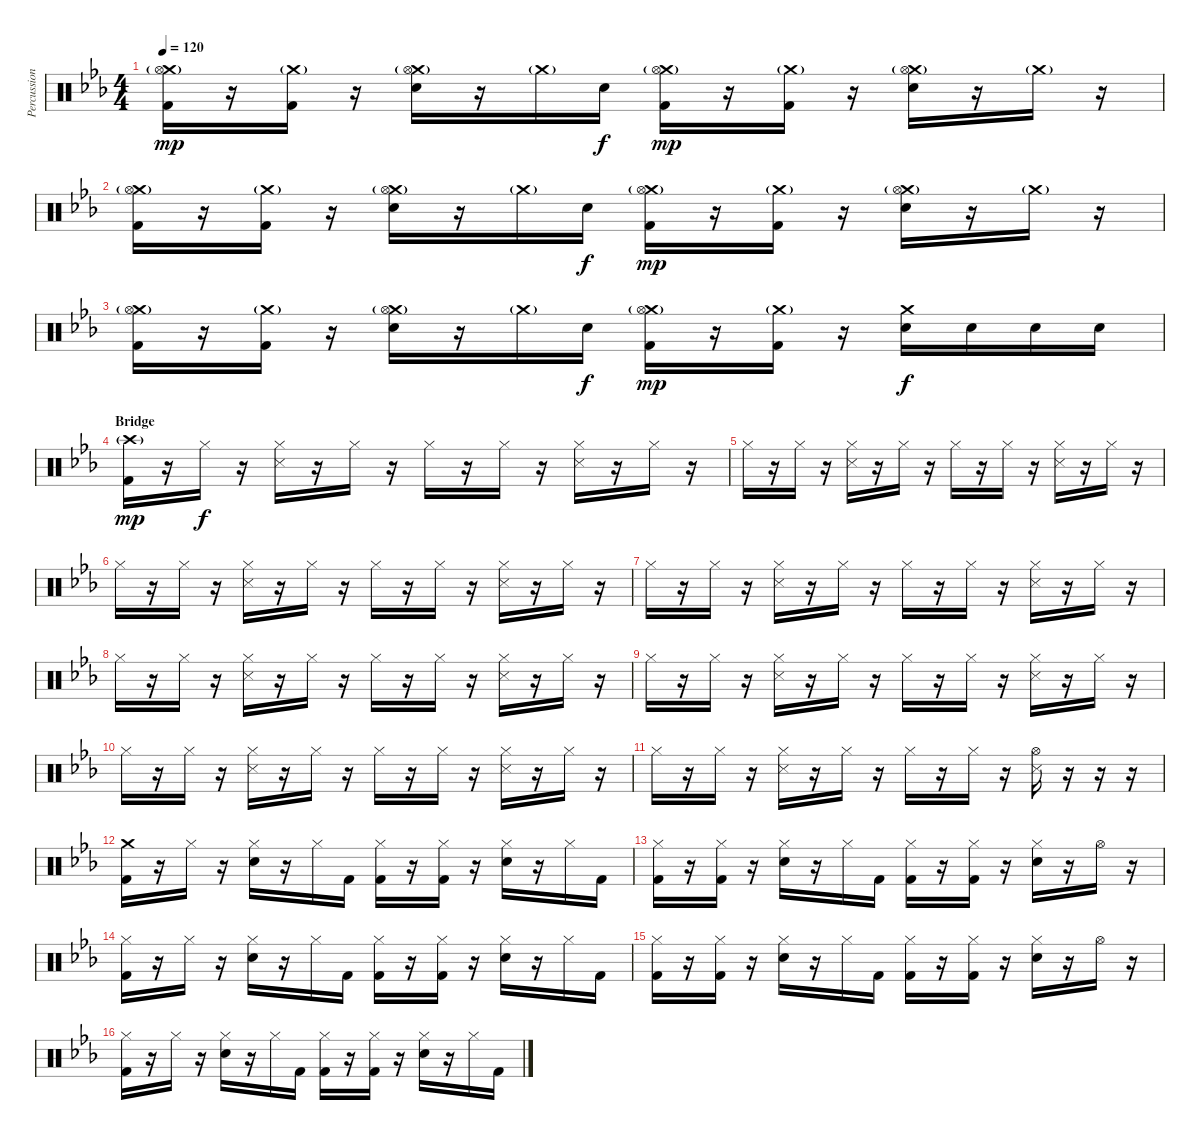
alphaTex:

\track ("Percussion" "Percussion") {instrument percussion}
\staff {score}
\articulation defaults
\ts (4 4)
\tempo 120
\clef neutral
\ks eb
("Crash medium (hit)"{g} "Hi-Hat (open)" "Kick (hit) 2").16{dy mp} r.16 ("Crash medium (hit)"{g} "Kick (hit) 2").16 r.16 ("Crash medium (hit)"{g} "Hi-Hat (open)" "Electric Snare (hit)").16 r.16 "Crash medium (hit)"{g}.16 "Electric Snare (hit)".16{dy f} ("Crash medium (hit)"{g} "Hi-Hat (open)" "Kick (hit) 2").16{dy mp} r.16 ("Crash medium (hit)"{g} "Kick (hit) 2").16 r.16 ("Crash medium (hit)"{g} "Hi-Hat (open)" "Electric Snare (hit)").16 r.16 "Crash medium (hit)"{g}.16 r.16 |
("Crash medium (hit)"{g} "Hi-Hat (open)" "Kick (hit) 2").16 r.16 ("Crash medium (hit)"{g} "Kick (hit) 2").16 r.16 ("Crash medium (hit)"{g} "Hi-Hat (open)" "Electric Snare (hit)").16 r.16 "Crash medium (hit)"{g}.16 "Electric Snare (hit)".16{dy f} ("Crash medium (hit)"{g} "Hi-Hat (open)" "Kick (hit) 2").16{dy mp} r.16 ("Crash medium (hit)"{g} "Kick (hit) 2").16 r.16 ("Crash medium (hit)"{g} "Hi-Hat (open)" "Electric Snare (hit)").16 r.16 "Crash medium (hit)"{g}.16 r.16 |
("Crash medium (hit)"{g} "Hi-Hat (open)" "Kick (hit) 2").16 r.16 ("Crash medium (hit)"{g} "Kick (hit) 2").16 r.16 ("Crash medium (hit)"{g} "Hi-Hat (open)" "Electric Snare (hit)").16 r.16 "Crash medium (hit)"{g}.16 "Electric Snare (hit)".16{dy f} ("Crash medium (hit)"{g} "Hi-Hat (open)" "Kick (hit) 2").16{dy mp} r.16 ("Crash medium (hit)"{g} "Kick (hit) 2").16 r.16 ("Crash medium (hit)" "Electric Snare (hit)").16{dy f} "Electric Snare (hit)".16 "Electric Snare (hit)".16 "Electric Snare (hit)".16 |
\section ("" "Bridge")
("Crash high (hit)"{g} "Kick (hit) 2").16{dy mp} r.16 "Hi-Hat (closed)".16{dy f} r.16 ("Hi-Hat (closed)" "Snare (side stick) 3").16 r.16 "Hi-Hat (closed)".16 r.16 "Hi-Hat (closed)".16 r.16 "Hi-Hat (closed)".16 r.16 ("Hi-Hat (closed)" "Snare (side stick) 3").16 r.16 "Hi-Hat (closed)".16 r.16 |
"Hi-Hat (closed)".16 r.16 "Hi-Hat (closed)".16 r.16 ("Hi-Hat (closed)" "Snare (side stick) 3").16 r.16 "Hi-Hat (closed)".16 r.16 "Hi-Hat (closed)".16 r.16 "Hi-Hat (closed)".16 r.16 ("Hi-Hat (closed)" "Snare (side stick) 3").16 r.16 "Hi-Hat (closed)".16 r.16 |
"Hi-Hat (closed)".16 r.16 "Hi-Hat (closed)".16 r.16 ("Hi-Hat (closed)" "Snare (side stick) 3").16 r.16 "Hi-Hat (closed)".16 r.16 "Hi-Hat (closed)".16 r.16 "Hi-Hat (closed)".16 r.16 ("Hi-Hat (closed)" "Snare (side stick) 3").16 r.16 "Hi-Hat (closed)".16 r.16 |
"Hi-Hat (closed)".16 r.16 "Hi-Hat (closed)".16 r.16 ("Hi-Hat (closed)" "Snare (side stick) 3").16 r.16 "Hi-Hat (closed)".16 r.16 "Hi-Hat (closed)".16 r.16 "Hi-Hat (closed)".16 r.16 ("Hi-Hat (closed)" "Snare (side stick) 3").16 r.16 "Hi-Hat (closed)".16 r.16 |
"Hi-Hat (closed)".16 r.16 "Hi-Hat (closed)".16 r.16 ("Hi-Hat (closed)" "Snare (side stick) 3").16 r.16 "Hi-Hat (closed)".16 r.16 "Hi-Hat (closed)".16 r.16 "Hi-Hat (closed)".16 r.16 ("Hi-Hat (closed)" "Snare (side stick) 3").16 r.16 "Hi-Hat (closed)".16 r.16 |
"Hi-Hat (closed)".16 r.16 "Hi-Hat (closed)".16 r.16 ("Hi-Hat (closed)" "Snare (side stick) 3").16 r.16 "Hi-Hat (closed)".16 r.16 "Hi-Hat (closed)".16 r.16 "Hi-Hat (closed)".16 r.16 ("Hi-Hat (closed)" "Snare (side stick) 3").16 r.16 "Hi-Hat (closed)".16 r.16 |
"Hi-Hat (closed)".16 r.16 "Hi-Hat (closed)".16 r.16 ("Hi-Hat (closed)" "Snare (side stick) 3").16 r.16 "Hi-Hat (closed)".16 r.16 "Hi-Hat (closed)".16 r.16 "Hi-Hat (closed)".16 r.16 ("Hi-Hat (closed)" "Snare (side stick) 3").16 r.16 "Hi-Hat (closed)".16 r.16 |
"Hi-Hat (closed)".16 r.16 "Hi-Hat (closed)".16 r.16 ("Hi-Hat (closed)" "Snare (side stick) 3").16 r.16 "Hi-Hat (closed)".16 r.16 "Hi-Hat (closed)".16 r.16 "Hi-Hat (closed)".16 r.16 ("Hi-Hat (open)" "Snare (side stick) 3").16 r.16 r.16 r.16 |
("Crash medium (hit)" "Kick (hit) 2").16 r.16 "Hi-Hat (closed)".16 r.16 ("Hi-Hat (closed)" "Electric Snare (hit)").16 r.16 "Hi-Hat (closed)".16 "Kick (hit) 2".16 ("Hi-Hat (closed)" "Kick (hit) 2").16 r.16 ("Hi-Hat (closed)" "Kick (hit) 2").16 r.16 ("Hi-Hat (closed)" "Electric Snare (hit)").16 r.16 "Hi-Hat (closed)".16 "Kick (hit) 2".16 |
("Hi-Hat (closed)" "Kick (hit) 2").16 r.16 ("Hi-Hat (closed)" "Kick (hit) 2").16 r.16 ("Hi-Hat (closed)" "Electric Snare (hit)").16 r.16 "Hi-Hat (closed)".16 "Kick (hit) 2".16 ("Hi-Hat (closed)" "Kick (hit) 2").16 r.16 ("Hi-Hat (closed)" "Kick (hit) 2").16 r.16 ("Hi-Hat (closed)" "Electric Snare (hit)").16 r.16 "Hi-Hat (open)".16 r.16 |
("Hi-Hat (closed)" "Kick (hit) 2").16 r.16 "Hi-Hat (closed)".16 r.16 ("Hi-Hat (closed)" "Electric Snare (hit)").16 r.16 "Hi-Hat (closed)".16 "Kick (hit) 2".16 ("Hi-Hat (closed)" "Kick (hit) 2").16 r.16 ("Hi-Hat (closed)" "Kick (hit) 2").16 r.16 ("Hi-Hat (closed)" "Electric Snare (hit)").16 r.16 "Hi-Hat (closed)".16 "Kick (hit) 2".16 |
("Hi-Hat (closed)" "Kick (hit) 2").16 r.16 ("Hi-Hat (closed)" "Kick (hit) 2").16 r.16 ("Hi-Hat (closed)" "Electric Snare (hit)").16 r.16 "Hi-Hat (closed)".16 "Kick (hit) 2".16 ("Hi-Hat (closed)" "Kick (hit) 2").16 r.16 ("Hi-Hat (closed)" "Kick (hit) 2").16 r.16 ("Hi-Hat (closed)" "Electric Snare (hit)").16 r.16 "Hi-Hat (open)".16 r.16 |
("Hi-Hat (closed)" "Kick (hit) 2").16 r.16 "Hi-Hat (closed)".16 r.16 ("Hi-Hat (closed)" "Electric Snare (hit)").16 r.16 "Hi-Hat (closed)".16 "Kick (hit) 2".16 ("Hi-Hat (closed)" "Kick (hit) 2").16 r.16 ("Hi-Hat (closed)" "Kick (hit) 2").16 r.16 ("Hi-Hat (closed)" "Electric Snare (hit)").16 r.16 "Hi-Hat (closed)".16 "Kick (hit) 2".16
